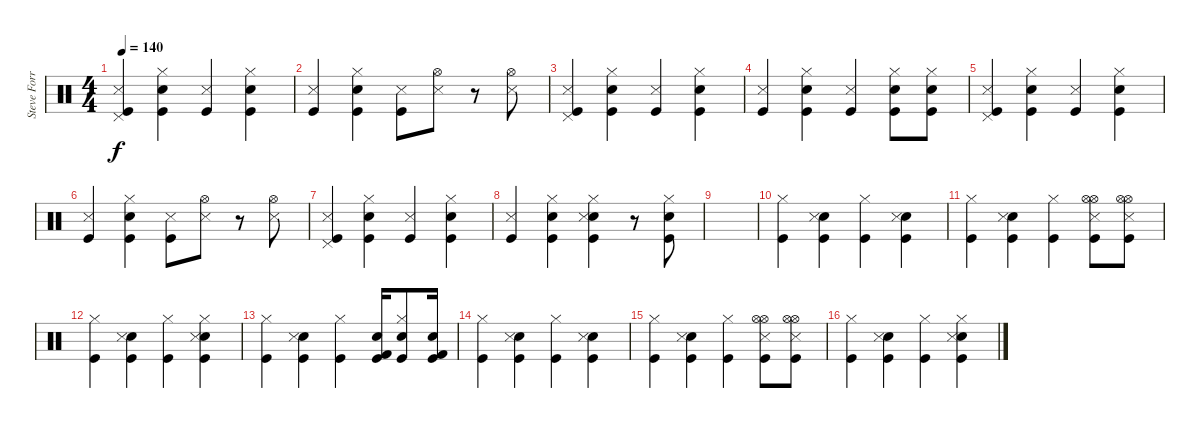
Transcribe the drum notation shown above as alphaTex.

\track ("Steve Forrest - Drums" "Steve Forr") {instrument percussion}
\staff {score}
\articulation defaults
\ts (4 4)
\tempo 140
\clef neutral
\ks c
("Pedal Hi-Hat (hit)" "Snare (side stick) 3" "Kick (hit)").4{dy f} ("Snare (hit) 2" "Hi-Hat (closed)" "Kick (hit)").4 ("Snare (side stick) 3" "Kick (hit)").4 ("Snare (hit) 2" "Hi-Hat (closed)" "Kick (hit)").4 |
("Snare (side stick) 3" "Kick (hit)").4 ("Snare (hit) 2" "Hi-Hat (closed)" "Kick (hit)").4 ("Snare (side stick) 3" "Kick (hit)").8 ("Hi-Hat (open)" "Snare (side stick) 3").8 r.8 ("Hi-Hat (open)" "Snare (side stick) 3").8 |
("Pedal Hi-Hat (hit)" "Snare (side stick) 3" "Kick (hit)").4 ("Snare (hit) 2" "Hi-Hat (closed)" "Kick (hit)").4 ("Snare (side stick) 3" "Kick (hit)").4 ("Snare (hit) 2" "Hi-Hat (closed)" "Kick (hit)").4 |
("Snare (side stick) 3" "Kick (hit)").4 ("Snare (hit) 2" "Hi-Hat (closed)" "Kick (hit)").4 ("Snare (side stick) 3" "Kick (hit)").4 ("Snare (hit) 2" "Hi-Hat (closed)" "Kick (hit)").8 ("Snare (hit) 2" "Hi-Hat (closed)" "Kick (hit)").8 |
("Pedal Hi-Hat (hit)" "Snare (side stick) 3" "Kick (hit)").4 ("Snare (hit) 2" "Hi-Hat (closed)" "Kick (hit)").4 ("Snare (side stick) 3" "Kick (hit)").4 ("Snare (hit) 2" "Hi-Hat (closed)" "Kick (hit)").4 |
("Snare (side stick) 3" "Kick (hit)").4 ("Snare (hit) 2" "Hi-Hat (closed)" "Kick (hit)").4 ("Snare (side stick) 3" "Kick (hit)").8 ("Hi-Hat (open)" "Snare (side stick) 3").8 r.8 ("Hi-Hat (open)" "Snare (side stick) 3").8 |
("Pedal Hi-Hat (hit)" "Snare (side stick) 3" "Kick (hit)").4 ("Snare (hit) 2" "Hi-Hat (closed)" "Kick (hit)").4 ("Snare (side stick) 3" "Kick (hit)").4 ("Snare (hit) 2" "Hi-Hat (closed)" "Kick (hit)").4 |
("Snare (side stick) 3" "Kick (hit)").4 ("Snare (hit) 2" "Hi-Hat (closed)" "Kick (hit)").4 ("Snare (hit) 2" "Hi-Hat (closed)" "Snare (side stick) 3" "Kick (hit)").4 r.8 ("Snare (hit) 2" "Hi-Hat (closed)" "Kick (hit)").8 |
|
("Hi-Hat (closed)" "Kick (hit)").4 ("Electric Snare (hit)" "Snare (side stick) 3" "Kick (hit)").4 ("Hi-Hat (closed)" "Kick (hit)").4 ("Electric Snare (hit)" "Snare (side stick) 3" "Kick (hit)").4 |
("Hi-Hat (closed)" "Kick (hit)").4 ("Electric Snare (hit)" "Snare (side stick) 3" "Kick (hit)").4 ("Hi-Hat (closed)" "Kick (hit)").4 ("Hi-Hat (open)" "Hi-Hat (open)" "Snare (side stick) 3" "Kick (hit)").8 ("Hi-Hat (open)" "Hi-Hat (open)" "Snare (side stick) 3" "Kick (hit)").8 |
("Hi-Hat (closed)" "Kick (hit)").4 ("Electric Snare (hit)" "Snare (side stick) 3" "Kick (hit)").4 ("Hi-Hat (closed)" "Kick (hit)").4 ("Electric Snare (hit)" "Snare (side stick) 3" "Hi-Hat (closed)" "Kick (hit)").4 |
("Hi-Hat (closed)" "Kick (hit)").4 ("Electric Snare (hit)" "Snare (side stick) 3" "Kick (hit)").4 ("Hi-Hat (closed)" "Kick (hit)").4 ("Kick (hit) 2" "Electric Snare (hit)" "Kick (hit)").16 ("Hi-Hat (closed)" "Electric Snare (hit)" "Kick (hit)").8 ("Kick (hit) 2" "Electric Snare (hit)" "Kick (hit)").16 |
("Hi-Hat (closed)" "Kick (hit)").4 ("Electric Snare (hit)" "Snare (side stick) 3" "Kick (hit)").4 ("Hi-Hat (closed)" "Kick (hit)").4 ("Electric Snare (hit)" "Snare (side stick) 3" "Kick (hit)").4 |
("Hi-Hat (closed)" "Kick (hit)").4 ("Electric Snare (hit)" "Snare (side stick) 3" "Kick (hit)").4 ("Hi-Hat (closed)" "Kick (hit)").4 ("Hi-Hat (open)" "Hi-Hat (open)" "Snare (side stick) 3" "Kick (hit)").8 ("Hi-Hat (open)" "Hi-Hat (open)" "Snare (side stick) 3" "Kick (hit)").8 |
("Hi-Hat (closed)" "Kick (hit)").4 ("Electric Snare (hit)" "Snare (side stick) 3" "Kick (hit)").4 ("Hi-Hat (closed)" "Kick (hit)").4 ("Electric Snare (hit)" "Snare (side stick) 3" "Hi-Hat (closed)" "Kick (hit)").4
